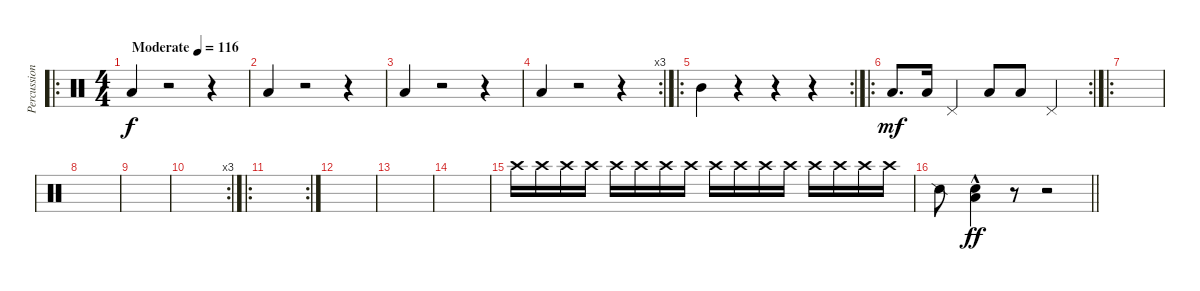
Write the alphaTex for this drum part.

\track ("Percussions" "Percussion") {instrument percussion}
\staff {score}
\articulation defaults
\ro
\ts (4 4)
\tempo (116 "Moderate")
\clef neutral
\ks c "Low Floor Tom (hit)".4{dy f}
r.2 r.4 |
"Low Floor Tom (hit)".4 r.2 r.4 |
"Low Floor Tom (hit)".4 r.2 r.4 |
\rc 3 "Low Floor Tom (hit)".4
r.2 r.4 |
\ro
\rc 2 "Mid Tom (hit)".4
r.4 r.4 r.4 |
\ro
\rc 2 "Low Floor Tom (hit)".8{d dy mf} "Low Floor Tom (hit)".16 "Pedal Hi-Hat (hit)".4 "Low Floor Tom (hit)".8 "Low Floor Tom (hit)".8 "Pedal Hi-Hat (hit)".4
|
\ro
|
|
|
\rc 3
|
\ro
\rc 2
|
|
|
|
"Crash high (hit)".16 "Crash high (hit)".16 "Crash high (hit)".16 "Crash high (hit)".16 "Crash high (hit)".16 "Crash high (hit)".16 "Crash high (hit)".16 "Crash high (hit)".16 "Crash high (hit)".16 "Crash high (hit)".16 "Crash high (hit)".16 "Crash high (hit)".16 "Crash high (hit)".16 "Crash high (hit)".16 "Crash high (hit)".16 "Crash high (hit)".16 |
\barLineRight lightlight "Snare (side stick) 2".8
("Low Floor Tom (hit)" "Electric Snare (hit)"{hac}).4{dy ff} r.8 r.2
